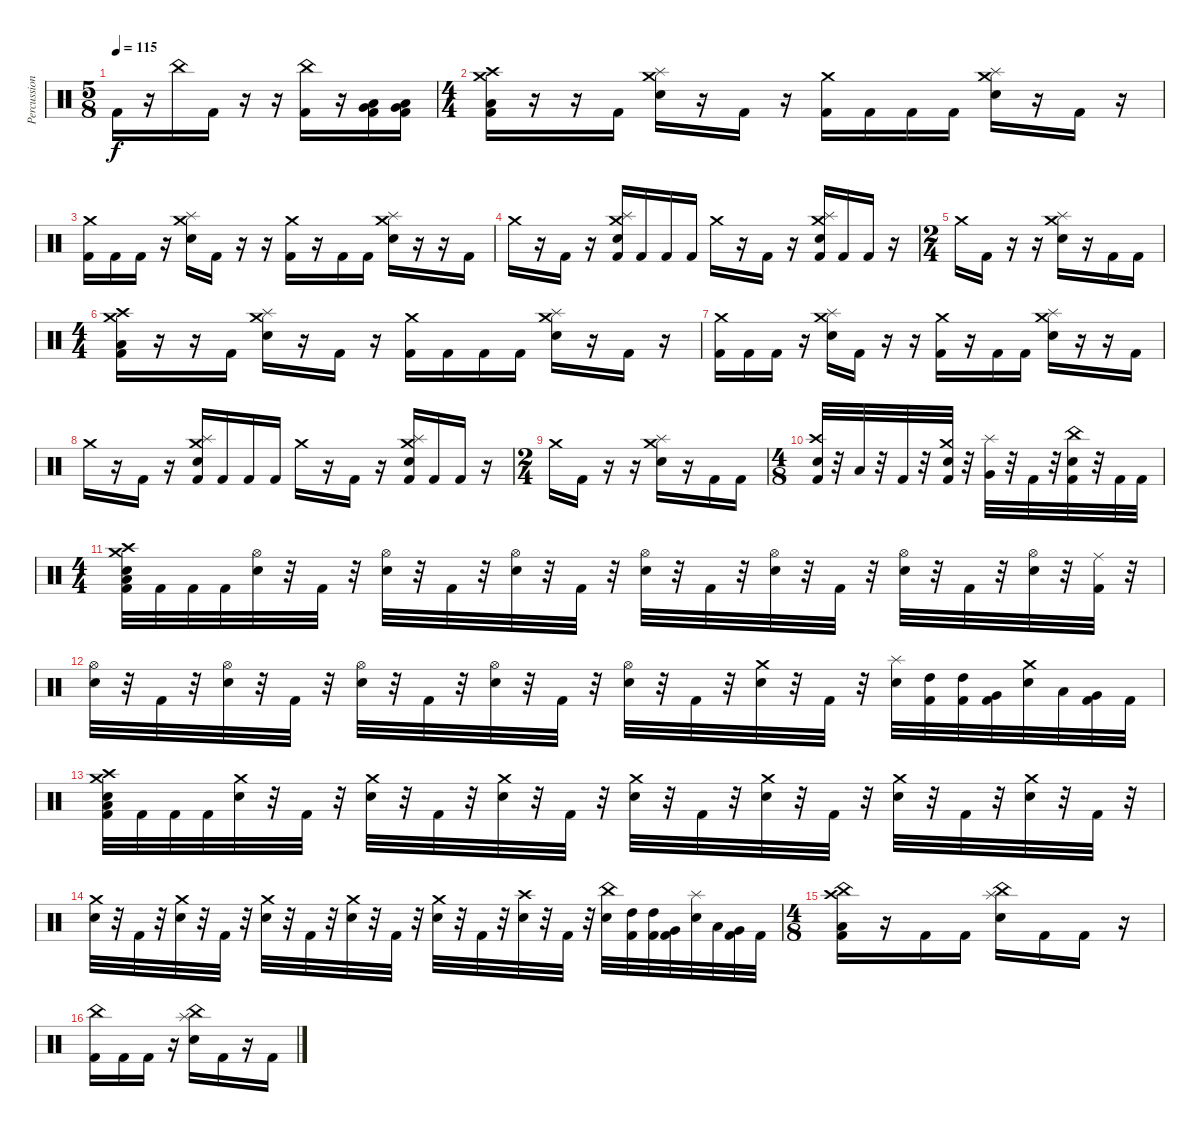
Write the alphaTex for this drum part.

\track ("Percussion" "Percussion") {instrument percussion}
\staff {score}
\articulation defaults
\ts (5 8)
\tempo 115
\clef neutral
\ks c "Kick (hit) 2".16{dy f}
r.16 "China (hit)".16 "Kick (hit) 2".16 r.16 r.16 ("China (hit)" "Kick (hit) 2").16 r.16 ("Very Low Tom (hit)" "Low Floor Tom (hit)" "Kick (hit) 2").16 ("Very Low Tom (hit)" "Low Floor Tom (hit)" "Kick (hit) 2").16 |
\ts (4 4)
("Crash high (hit)" "Crash medium (hit)" "Low Floor Tom (hit)" "Kick (hit) 2").16 r.16 r.16 "Kick (hit) 2".16 ("Crash medium (hit)" "Splash (hit)" "Electric Snare (hit)").16 r.16 "Kick (hit) 2".16 r.16 ("Crash medium (hit)" "Kick (hit) 2").16 "Kick (hit) 2".16 "Kick (hit) 2".16 "Kick (hit) 2".16 ("Crash medium (hit)" "Splash (hit)" "Electric Snare (hit)").16 r.16 "Kick (hit) 2".16 r.16 |
("Crash medium (hit)" "Kick (hit) 2").16 "Kick (hit) 2".16 "Kick (hit) 2".16 r.16 ("Crash medium (hit)" "Splash (hit)" "Electric Snare (hit)").16 "Kick (hit) 2".16 r.16 r.16 ("Crash medium (hit)" "Kick (hit) 2").16 r.16 "Kick (hit) 2".16 "Kick (hit) 2".16 ("Crash medium (hit)" "Splash (hit)" "Electric Snare (hit)").16 r.16 r.16 "Kick (hit) 2".16 |
"Crash medium (hit)".16 r.16 "Kick (hit) 2".16 r.16 ("Crash medium (hit)" "Splash (hit)" "Electric Snare (hit)" "Kick (hit) 2").16 "Kick (hit) 2".16 "Kick (hit) 2".16 "Kick (hit) 2".16 "Crash medium (hit)".16 r.16 "Kick (hit) 2".16 r.16 ("Crash medium (hit)" "Splash (hit)" "Electric Snare (hit)" "Kick (hit) 2").16 "Kick (hit) 2".16 "Kick (hit) 2".16 r.16 |
\ts (2 4)
"Crash medium (hit)".16 "Kick (hit) 2".16 r.16 r.16 ("Crash medium (hit)" "Splash (hit)" "Electric Snare (hit)").16 r.16 "Kick (hit) 2".16 "Kick (hit) 2".16 |
\ts (4 4)
("Crash high (hit)" "Crash medium (hit)" "Low Floor Tom (hit)" "Kick (hit) 2").16 r.16 r.16 "Kick (hit) 2".16 ("Crash medium (hit)" "Splash (hit)" "Electric Snare (hit)").16 r.16 "Kick (hit) 2".16 r.16 ("Crash medium (hit)" "Kick (hit) 2").16 "Kick (hit) 2".16 "Kick (hit) 2".16 "Kick (hit) 2".16 ("Crash medium (hit)" "Splash (hit)" "Electric Snare (hit)").16 r.16 "Kick (hit) 2".16 r.16 |
("Crash medium (hit)" "Kick (hit) 2").16 "Kick (hit) 2".16 "Kick (hit) 2".16 r.16 ("Crash medium (hit)" "Splash (hit)" "Electric Snare (hit)").16 "Kick (hit) 2".16 r.16 r.16 ("Crash medium (hit)" "Kick (hit) 2").16 r.16 "Kick (hit) 2".16 "Kick (hit) 2".16 ("Crash medium (hit)" "Splash (hit)" "Electric Snare (hit)").16 r.16 r.16 "Kick (hit) 2".16 |
"Crash medium (hit)".16 r.16 "Kick (hit) 2".16 r.16 ("Crash medium (hit)" "Splash (hit)" "Electric Snare (hit)" "Kick (hit) 2").16 "Kick (hit) 2".16 "Kick (hit) 2".16 "Kick (hit) 2".16 "Crash medium (hit)".16 r.16 "Kick (hit) 2".16 r.16 ("Crash medium (hit)" "Splash (hit)" "Electric Snare (hit)" "Kick (hit) 2").16 "Kick (hit) 2".16 "Kick (hit) 2".16 r.16 |
\ts (2 4)
"Crash medium (hit)".16 "Kick (hit) 2".16 r.16 r.16 ("Crash medium (hit)" "Splash (hit)" "Electric Snare (hit)").16 r.16 "Kick (hit) 2".16 "Kick (hit) 2".16 |
\ts (4 8)
("Crash high (hit)" "Electric Snare (hit)" "Kick (hit) 2").32 r.32 "Low Tom (hit)".32 r.32 "Kick (hit) 2".32 r.32 ("Crash medium (hit)" "Electric Snare (hit)" "Kick (hit) 2").32 r.32 ("Splash (hit)" "Very Low Tom (hit)").32 r.32 "Kick (hit) 2".32 r.32 ("China (hit)" "Electric Snare (hit)" "Kick (hit) 2").32 r.32 "Kick (hit) 2".32 "Kick (hit) 2".32 |
\ts (4 4)
("Crash high (hit)" "Crash medium (hit)" "Electric Snare (hit)" "Low Floor Tom (hit)" "Kick (hit) 2").32 "Kick (hit) 2".32 "Kick (hit) 2".32 "Kick (hit) 2".32 ("Hi-Hat (open)" "Electric Snare (hit)").32 r.32 "Kick (hit) 2".32 r.32 ("Hi-Hat (open)" "Electric Snare (hit)").32 r.32 "Kick (hit) 2".32 r.32 ("Hi-Hat (open)" "Electric Snare (hit)").32 r.32 "Kick (hit) 2".32 r.32 ("Hi-Hat (open)" "Electric Snare (hit)").32 r.32 "Kick (hit) 2".32 r.32 ("Hi-Hat (open)" "Electric Snare (hit)").32 r.32 "Kick (hit) 2".32 r.32 ("Hi-Hat (open)" "Electric Snare (hit)").32 r.32 "Kick (hit) 2".32 r.32 ("Hi-Hat (open)" "Electric Snare (hit)").32 r.32 ("Ride (middle)" "Kick (hit) 2").32 r.32 |
("Hi-Hat (open)" "Electric Snare (hit)").32 r.32 "Kick (hit) 2".32 r.32 ("Hi-Hat (open)" "Electric Snare (hit)").32 r.32 "Kick (hit) 2".32 r.32 ("Hi-Hat (open)" "Electric Snare (hit)").32 r.32 "Kick (hit) 2".32 r.32 ("Hi-Hat (open)" "Electric Snare (hit)").32 r.32 "Kick (hit) 2".32 r.32 ("Hi-Hat (open)" "Electric Snare (hit)").32 r.32 "Kick (hit) 2".32 r.32 ("Crash medium (hit)" "Electric Snare (hit)").32 r.32 "Kick (hit) 2".32 r.32 ("Splash (hit)" "Electric Snare (hit)").32 ("High Tom (hit)" "Kick (hit) 2").32 ("High Tom (hit)" "Kick (hit) 2").32 ("Very Low Tom (hit)" "Kick (hit) 2").32 ("Crash medium (hit)" "Electric Snare (hit)").32 "Low Tom (hit)".32 ("Very Low Tom (hit)" "Kick (hit) 2").32 "Kick (hit) 2".32 |
("Crash high (hit)" "Crash medium (hit)" "Electric Snare (hit)" "Low Floor Tom (hit)" "Kick (hit) 2").32 "Kick (hit) 2".32 "Kick (hit) 2".32 "Kick (hit) 2".32 ("Crash medium (hit)" "Electric Snare (hit)").32 r.32 "Kick (hit) 2".32 r.32 ("Crash medium (hit)" "Electric Snare (hit)").32 r.32 "Kick (hit) 2".32 r.32 ("Crash medium (hit)" "Electric Snare (hit)").32 r.32 "Kick (hit) 2".32 r.32 ("Crash medium (hit)" "Electric Snare (hit)").32 r.32 "Kick (hit) 2".32 r.32 ("Crash medium (hit)" "Electric Snare (hit)").32 r.32 "Kick (hit) 2".32 r.32 ("Crash medium (hit)" "Electric Snare (hit)").32 r.32 "Kick (hit) 2".32 r.32 ("Crash medium (hit)" "Electric Snare (hit)").32 r.32 "Kick (hit) 2".32 r.32 |
("Crash medium (hit)" "Electric Snare (hit)").32 r.32 "Kick (hit) 2".32 r.32 ("Crash medium (hit)" "Electric Snare (hit)").32 r.32 "Kick (hit) 2".32 r.32 ("Crash medium (hit)" "Electric Snare (hit)").32 r.32 "Kick (hit) 2".32 r.32 ("Crash medium (hit)" "Electric Snare (hit)").32 r.32 "Kick (hit) 2".32 r.32 ("Crash medium (hit)" "Electric Snare (hit)").32 r.32 "Kick (hit) 2".32 r.32 ("Crash high (hit)" "Electric Snare (hit)").32 r.32 "Kick (hit) 2".32 r.32 ("China (hit)" "Electric Snare (hit)").32 ("High Tom (hit)" "Kick (hit) 2").32 ("High Tom (hit)" "Kick (hit) 2").32 ("Very Low Tom (hit)" "Kick (hit) 2").32 ("Splash (hit)" "Electric Snare (hit)").32 "Low Tom (hit)".32 ("Very Low Tom (hit)" "Kick (hit) 2").32 "Kick (hit) 2".32 |
\ts (4 8)
("China (hit)" "Crash high (hit)" "Low Floor Tom (hit)" "Kick (hit) 2").16 r.16 "Kick (hit) 2".16 "Kick (hit) 2".16 ("China (hit)" "Splash (hit)" "Electric Snare (hit)").16 "Kick (hit) 2".16 "Kick (hit) 2".16 r.16 |
("China (hit)" "Kick (hit) 2").16 "Kick (hit) 2".16 "Kick (hit) 2".16 r.16 ("China (hit)" "Splash (hit)" "Electric Snare (hit)").16 "Kick (hit) 2".16 r.16 "Kick (hit) 2".16
